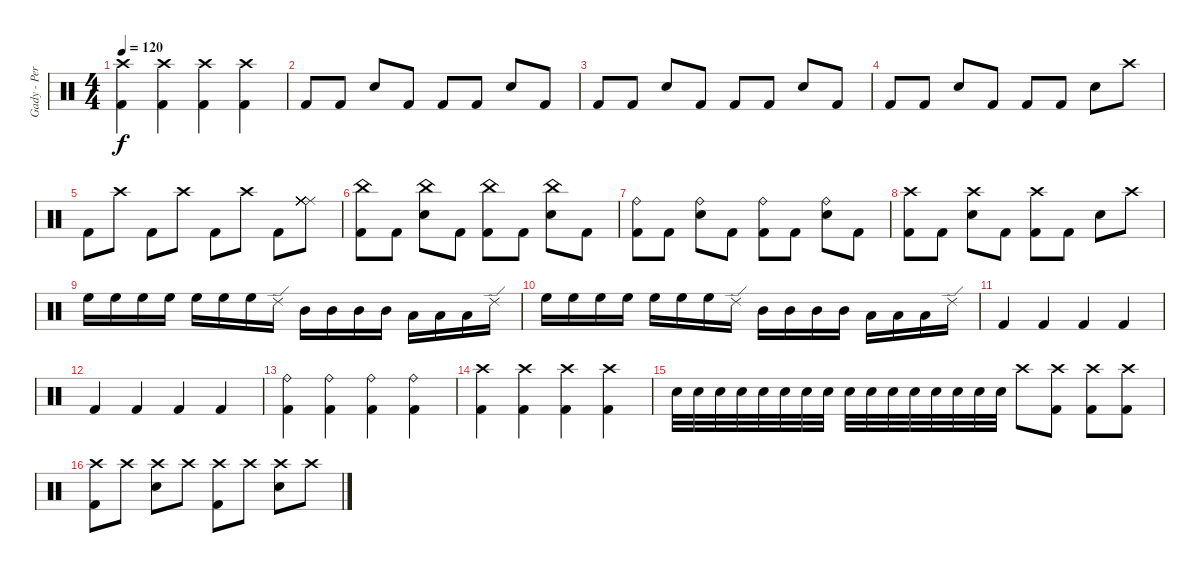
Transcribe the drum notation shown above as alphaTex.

\track ("Gady - Perkusja" "Gady - Per") {instrument percussion}
\staff {score}
\articulation defaults
\ts (4 4)
\tempo 120
\clef neutral
\ks c
("Crash high (hit)" "Kick (hit) 2").4{dy f} ("Crash high (hit)" "Kick (hit) 2").4 ("Crash high (hit)" "Kick (hit) 2").4 ("Crash high (hit)" "Kick (hit) 2").4 |
"Kick (hit) 2".8 "Kick (hit) 2".8 "Snare (hit) 2".8 "Kick (hit) 2".8 "Kick (hit) 2".8 "Kick (hit) 2".8 "Snare (hit) 2".8 "Kick (hit) 2".8 |
"Kick (hit) 2".8 "Kick (hit) 2".8 "Snare (hit) 2".8 "Kick (hit) 2".8 "Kick (hit) 2".8 "Kick (hit) 2".8 "Snare (hit) 2".8 "Kick (hit) 2".8 |
"Kick (hit) 2".8 "Kick (hit) 2".8 "Snare (hit) 2".8 "Kick (hit) 2".8 "Kick (hit) 2".8 "Kick (hit) 2".8 "Snare (hit) 2".8 "Crash high (hit)".8 |
"Kick (hit) 2".8 "Crash high (hit)".8 "Kick (hit) 2".8 "Crash high (hit)".8 "Kick (hit) 2".8 "Crash high (hit)".8 "Kick (hit) 2".8 ("Ride (middle)" "Ride (middle)" "Ride (middle)" "Ride (middle)" "Ride (middle)" "Ride (middle)").8 |
("China (hit)" "Kick (hit) 2").8 "Kick (hit) 2".8 ("China (hit)" "Snare (hit) 2").8 "Kick (hit) 2".8 ("China (hit)" "Kick (hit) 2").8 "Kick (hit) 2".8 ("China (hit)" "Snare (hit) 2").8 "Kick (hit) 2".8 |
("Ride (bell)" "Kick (hit) 2").8 "Kick (hit) 2".8 ("Ride (bell)" "Snare (hit) 2").8 "Kick (hit) 2".8 ("Ride (bell)" "Kick (hit) 2").8 "Kick (hit) 2".8 ("Ride (bell)" "Snare (hit) 2").8 "Kick (hit) 2".8 |
("Crash high (hit)" "Kick (hit) 2").8 "Kick (hit) 2".8 ("Crash high (hit)" "Snare (hit) 2").8 "Kick (hit) 2".8 ("Crash high (hit)" "Kick (hit) 2").8 "Kick (hit) 2".8 "Snare (hit) 2".8 "Crash high (hit)".8 |
"High Floor Tom (hit)".16 "High Floor Tom (hit)".16 "High Floor Tom (hit)".16 "High Floor Tom (hit)".16 "High Floor Tom (hit)".16 "High Floor Tom (hit)".16 "High Floor Tom (hit)".16 "Ride (edge) 2".16 "Mid Tom (hit)".16 "Mid Tom (hit)".16 "Mid Tom (hit)".16 "Mid Tom (hit)".16 "Low Tom (hit)".16 "Low Tom (hit)".16 "Low Tom (hit)".16 "Ride (edge) 2".16 |
"High Floor Tom (hit)".16 "High Floor Tom (hit)".16 "High Floor Tom (hit)".16 "High Floor Tom (hit)".16 "High Floor Tom (hit)".16 "High Floor Tom (hit)".16 "High Floor Tom (hit)".16 "Ride (edge) 2".16 "Mid Tom (hit)".16 "Mid Tom (hit)".16 "Mid Tom (hit)".16 "Mid Tom (hit)".16 "Low Tom (hit)".16 "Low Tom (hit)".16 "Low Tom (hit)".16 "Ride (edge) 2".16 |
"Kick (hit) 2".4 "Kick (hit) 2".4 "Kick (hit) 2".4 "Kick (hit) 2".4 |
"Kick (hit) 2".4 "Kick (hit) 2".4 "Kick (hit) 2".4 "Kick (hit) 2".4 |
("Ride (bell)" "Kick (hit) 2").4 ("Ride (bell)" "Kick (hit) 2").4 ("Ride (bell)" "Kick (hit) 2").4 ("Ride (bell)" "Kick (hit) 2").4 |
("Crash high (hit)" "Kick (hit) 2").4 ("Crash high (hit)" "Kick (hit) 2").4 ("Crash high (hit)" "Kick (hit) 2").4 ("Crash high (hit)" "Kick (hit) 2").4 |
"Snare (hit) 2".32 "Snare (hit) 2".32 "Snare (hit) 2".32 "Snare (hit) 2".32 "Snare (hit) 2".32 "Snare (hit) 2".32 "Snare (hit) 2".32 "Snare (hit) 2".32 "Snare (hit) 2".32 "Snare (hit) 2".32 "Snare (hit) 2".32 "Snare (hit) 2".32 "Snare (hit) 2".32 "Snare (hit) 2".32 "Snare (hit) 2".32 "Snare (hit) 2".32 "Crash high (hit)".8 ("Crash high (hit)" "Kick (hit) 2").8 ("Crash high (hit)" "Kick (hit) 2").8 ("Crash high (hit)" "Kick (hit) 2").8 |
("Crash high (hit)" "Kick (hit) 2").8 "Crash high (hit)".8 ("Crash high (hit)" "Snare (hit) 2").8 "Crash high (hit)".8 ("Crash high (hit)" "Kick (hit) 2").8 "Crash high (hit)".8 ("Crash high (hit)" "Snare (hit) 2").8 "Crash high (hit)".8
